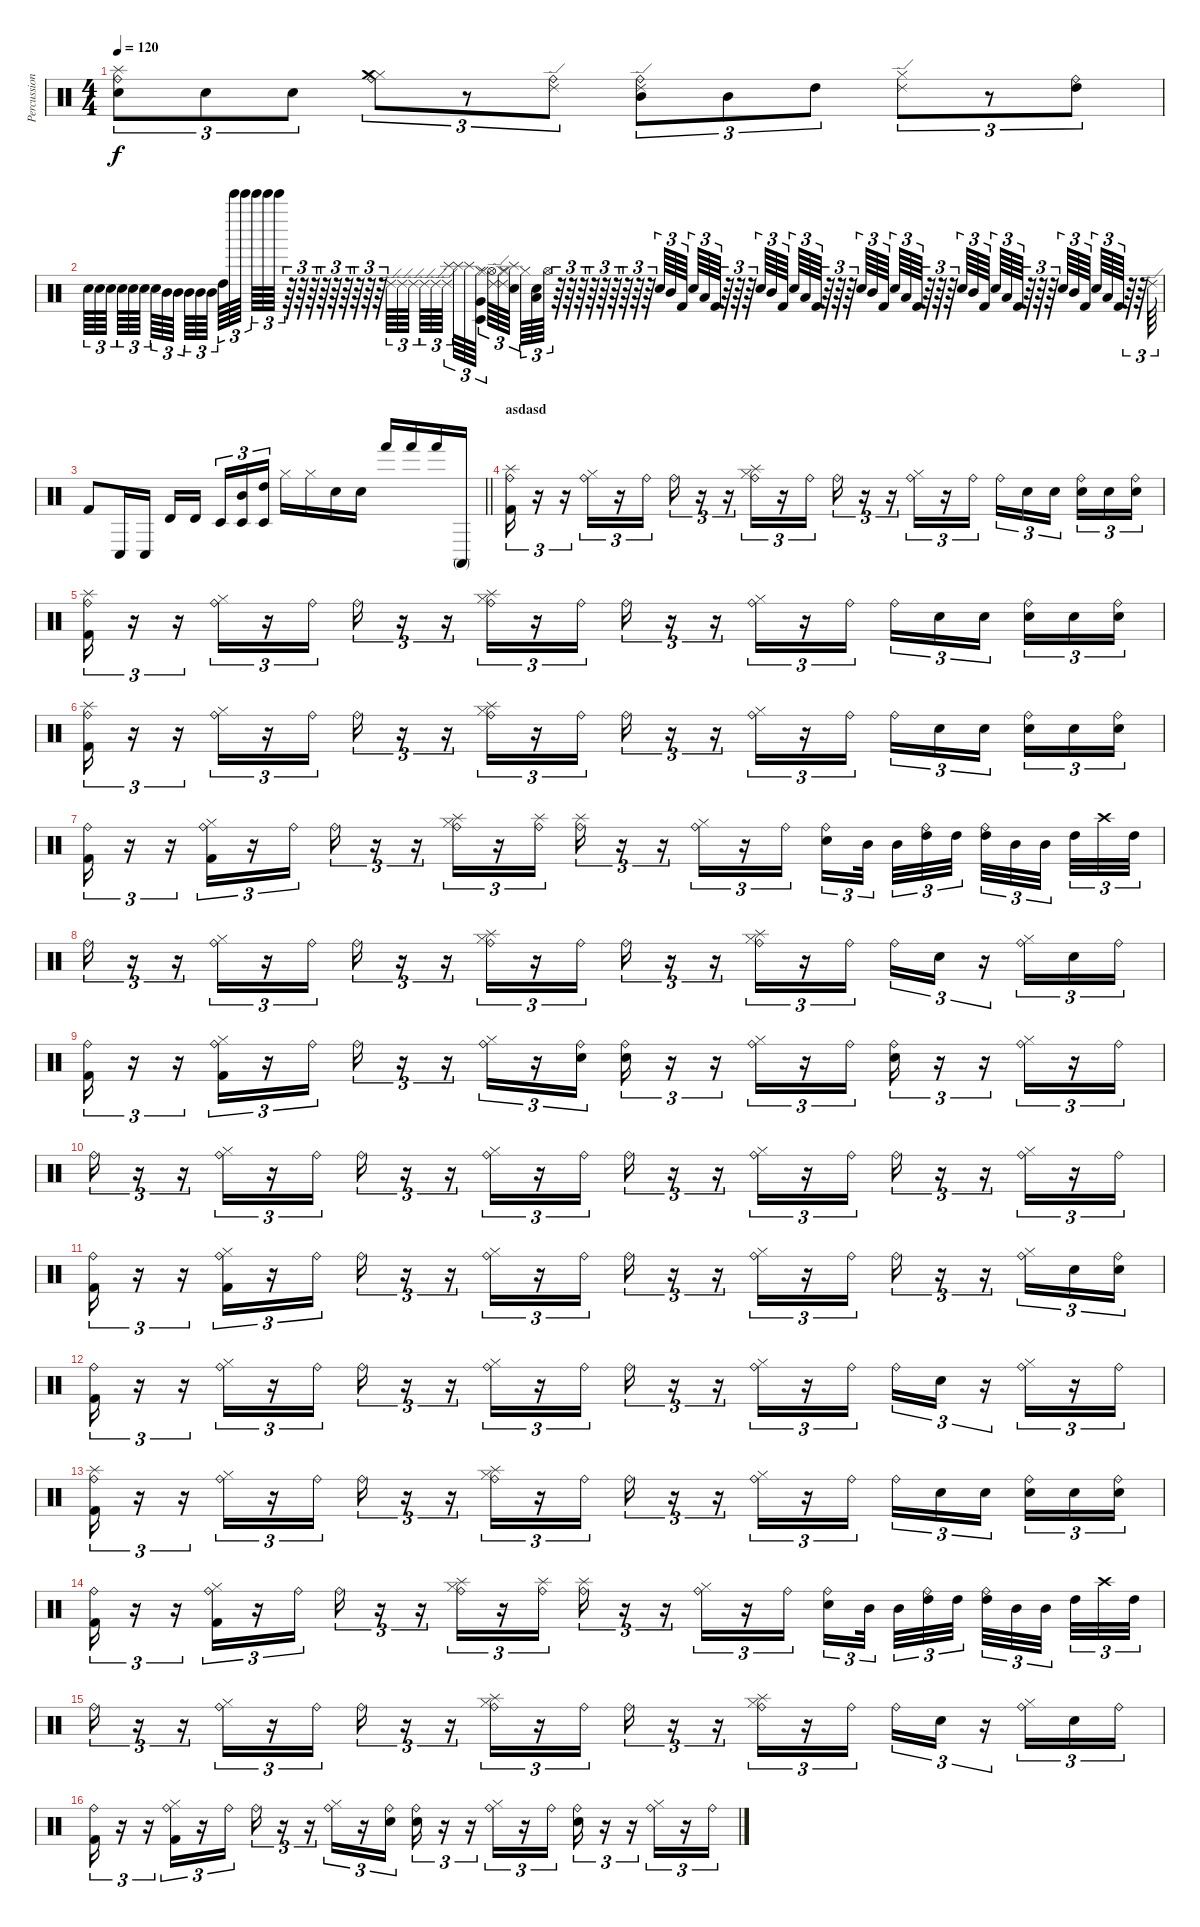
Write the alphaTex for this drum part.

\track ("Percussion" "Percussion") {instrument percussion}
\staff {score}
\articulation defaults
\ts (4 4)
\tempo 120
\clef neutral
\ks c
("Snare (hit) 2" "Ride (bell)" "Splash (hit)").8{tu (3 2) dy f} "Snare (hit) 2".8{tu (3 2)} "Snare (hit) 2".8{tu (3 2)} ("Hi-Hat (closed)" "Ride (bell)" "Crash medium (hit)").8{tu (3 2)} r.8{tu (3 2)} ("Ride (bell)" "Ride (edge) 2").8{tu (3 2)} ("Mid Tom (hit)" "Ride (bell)" "Ride (edge) 2").8{tu (3 2)} "Mid Tom (hit)".8{tu (3 2)} "High Tom (hit)".8{tu (3 2)} ("Hi-Hat (closed)" "Ride (edge) 2").8{tu (3 2)} r.8{tu (3 2)} ("High Tom (hit)" "Ride (bell)").8{tu (3 2)} |
"Snare (hit) 2".64{tu (3 2)} "Snare (hit) 2".64{tu (3 2)} "Snare (hit) 2".64{tu (3 2) beam splitsecondary} "Snare (hit) 2".64{tu (3 2)} "Snare (hit) 2".64{tu (3 2)} "Snare (hit) 2".64{tu (3 2) beam splitsecondary} "Snare (hit) 2".64{tu (3 2)} "Mid Tom (hit)".64{tu (3 2)} "Mid Tom (hit)".64{tu (3 2) beam splitsecondary} "Mid Tom (hit)".64{tu (3 2)} "Mid Tom (hit)".64{tu (3 2)} "Mid Tom (hit)".64{tu (3 2) beam splitsecondary} "High Tom (hit)".64{tu (3 2)} "Bell Tree (hit)".64{tu (3 2)} "Bell Tree (hit)".64{tu (3 2) beam splitsecondary} "Bell Tree (hit)".64{tu (3 2)} "Bell Tree (hit)".64{tu (3 2)} "Bell Tree (hit)".64{tu (3 2)} r.64{tu (3 2)} r.64{tu (3 2)} r.64{tu (3 2)} r.64{tu (3 2)} r.64{tu (3 2)} r.64{tu (3 2)} r.64{tu (3 2)} r.64{tu (3 2)} r.64{tu (3 2)} "Ride (edge) 2".64{tu (3 2)} "Ride (edge) 2".64{tu (3 2)} "Ride (edge) 2".64{tu (3 2) beam splitsecondary} "Ride (edge) 2".64{tu (3 2)} "Ride (edge) 2".64{tu (3 2)} "Ride (edge) 2".64{tu (3 2) beam splitsecondary} ("Splash (hit)" "Splash (hit)").64{tu (3 2)} "Splash (hit)".64{tu (3 2)} ("Very Low Tom (hit)" "Hi-Hat (closed)" "Timbale low (hit)").64{tu (3 2) beam splitsecondary} ("Hi-Hat (open)" "Hi-Hat (closed)").64{tu (3 2)} ("Ride (edge) 2" "Ride (edge) 2" "Hi-Hat (closed)").64{tu (3 2)} ("Splash (hit)" "Snare (hit)" "Hi-Hat (closed)").64{tu (3 2) beam splitsecondary} "Hi-Hat (closed)".64{tu (3 2)} ("Snare (hit)" "Low Tom (hit)").64{tu (3 2)} "Hi-Hat (open)".64{tu (3 2)} r.64{tu (3 2)} r.64{tu (3 2)} r.64{tu (3 2)} r.64{tu (3 2)} r.64{tu (3 2)} r.64{tu (3 2)} r.64{tu (3 2)} r.64{tu (3 2)} r.64{tu (3 2)} "Snare (hit) 2".64{tu (3 2)} "Mid Tom (hit)".64{tu (3 2)} "Kick (hit) 2".64{tu (3 2) beam splitsecondary} "Snare (hit) 2".64{tu (3 2)} "Low Floor Tom (hit)".64{tu (3 2)} "Kick (hit) 2".64{tu (3 2)} r.64{tu (3 2)} r.64{tu (3 2)} r.64{tu (3 2)} "Snare (hit) 2".64{tu (3 2)} "Mid Tom (hit)".64{tu (3 2)} "Kick (hit) 2".64{tu (3 2) beam splitsecondary} "Snare (hit) 2".64{tu (3 2)} "Low Floor Tom (hit)".64{tu (3 2)} "Kick (hit) 2".64{tu (3 2)} r.64{tu (3 2)} r.64{tu (3 2)} r.64{tu (3 2)} "Snare (hit) 2".64{tu (3 2)} "Mid Tom (hit)".64{tu (3 2)} "Kick (hit) 2".64{tu (3 2)} "Snare (hit) 2".64{tu (3 2)} "Low Floor Tom (hit)".64{tu (3 2)} "Kick (hit) 2".64{tu (3 2)} r.64{tu (3 2)} r.64{tu (3 2)} r.64{tu (3 2)} "Snare (hit) 2".64{tu (3 2)} "Mid Tom (hit)".64{tu (3 2)} "Kick (hit) 2".64{tu (3 2) beam splitsecondary} "Snare (hit) 2".64{tu (3 2)} "Low Floor Tom (hit)".64{tu (3 2)} "Kick (hit) 2".64{tu (3 2)} r.64{tu (3 2)} r.64{tu (3 2)} r.64{tu (3 2)} "Snare (hit) 2".64{tu (3 2)} "Mid Tom (hit)".64{tu (3 2)} "Kick (hit) 2".64{tu (3 2) beam splitsecondary} "Snare (hit) 2".64{tu (3 2)} "Low Floor Tom (hit)".64{tu (3 2)} "Kick (hit) 2".64{tu (3 2)} r.64{tu (3 2)} r.64{tu (3 2)} "Ride (edge) 2".64{tu (3 2)} |
\barLineRight lightlight "Kick (hit) 2".8 "Conga low (hit)".16 "Conga low (hit)".16 "Timbale high (hit)".16 "Timbale high (hit)".16{beam splitsecondary} "Timbale low (hit)".16{tu (3 2)}
("Mid Tom (hit)" "Timbale low (hit)").16{tu (3 2)} ("High Tom (hit)" "Timbale low (hit)").16{tu (3 2)} "Hi-Hat (closed)".16 "Hi-Hat (closed)".16 "Snare (hit) 2".16 "Snare (hit) 2".16 "Hand (hit)".16 "Hand (hit)".16 "Hand (hit)".16 "Conga high (mute)".16 |
\section ("" "asdasd")
("Kick (hit) 2" "Ride (bell)" "Splash (hit)").16{tu (3 2)} r.16{tu (3 2)} r.16{tu (3 2)} ("Hi-Hat (closed)" "Ride (bell)").16{tu (3 2)} r.16{tu (3 2)} "Ride (bell)".16{tu (3 2)} "Ride (bell)".16{tu (3 2)} r.16{tu (3 2)} r.16{tu (3 2)} ("Hi-Hat (closed)" "Ride (bell)" "Splash (hit)").16{tu (3 2)} r.16{tu (3 2)} "Ride (bell)".16{tu (3 2)} "Ride (bell)".16{tu (3 2)} r.16{tu (3 2)} r.16{tu (3 2)} ("Hi-Hat (closed)" "Ride (bell)").16{tu (3 2)} r.16{tu (3 2)} "Ride (bell)".16{tu (3 2)} "Ride (bell)".16{tu (3 2)} "Snare (hit) 2".16{tu (3 2)} "Snare (hit) 2".16{tu (3 2) beam splitsecondary} ("Snare (hit) 2" "Ride (bell)").16{tu (3 2)} "Snare (hit) 2".16{tu (3 2)} ("Snare (hit) 2" "Ride (bell)").16{tu (3 2)} |
("Kick (hit) 2" "Ride (bell)" "Splash (hit)").16{tu (3 2)} r.16{tu (3 2)} r.16{tu (3 2)} ("Hi-Hat (closed)" "Ride (bell)").16{tu (3 2)} r.16{tu (3 2)} "Ride (bell)".16{tu (3 2)} "Ride (bell)".16{tu (3 2)} r.16{tu (3 2)} r.16{tu (3 2)} ("Hi-Hat (closed)" "Ride (bell)" "Splash (hit)").16{tu (3 2)} r.16{tu (3 2)} "Ride (bell)".16{tu (3 2)} "Ride (bell)".16{tu (3 2)} r.16{tu (3 2)} r.16{tu (3 2)} ("Hi-Hat (closed)" "Ride (bell)").16{tu (3 2)} r.16{tu (3 2)} "Ride (bell)".16{tu (3 2)} "Ride (bell)".16{tu (3 2)} "Snare (hit) 2".16{tu (3 2)} "Snare (hit) 2".16{tu (3 2) beam splitsecondary} ("Snare (hit) 2" "Ride (bell)").16{tu (3 2)} "Snare (hit) 2".16{tu (3 2)} ("Snare (hit) 2" "Ride (bell)").16{tu (3 2)} |
("Kick (hit) 2" "Ride (bell)" "Splash (hit)").16{tu (3 2)} r.16{tu (3 2)} r.16{tu (3 2)} ("Hi-Hat (closed)" "Ride (bell)").16{tu (3 2)} r.16{tu (3 2)} "Ride (bell)".16{tu (3 2)} "Ride (bell)".16{tu (3 2)} r.16{tu (3 2)} r.16{tu (3 2)} ("Hi-Hat (closed)" "Ride (bell)" "Splash (hit)").16{tu (3 2)} r.16{tu (3 2)} "Ride (bell)".16{tu (3 2)} "Ride (bell)".16{tu (3 2)} r.16{tu (3 2)} r.16{tu (3 2)} ("Hi-Hat (closed)" "Ride (bell)").16{tu (3 2)} r.16{tu (3 2)} "Ride (bell)".16{tu (3 2)} "Ride (bell)".16{tu (3 2)} "Snare (hit) 2".16{tu (3 2)} "Snare (hit) 2".16{tu (3 2) beam splitsecondary} ("Snare (hit) 2" "Ride (bell)").16{tu (3 2)} "Snare (hit) 2".16{tu (3 2)} ("Snare (hit) 2" "Ride (bell)").16{tu (3 2)} |
("Kick (hit) 2" "Ride (bell)").16{tu (3 2)} r.16{tu (3 2)} r.16{tu (3 2)} ("Hi-Hat (closed)" "Ride (bell)" "Kick (hit) 2").16{tu (3 2)} r.16{tu (3 2)} "Ride (bell)".16{tu (3 2)} "Ride (bell)".16{tu (3 2)} r.16{tu (3 2)} r.16{tu (3 2)} ("Hi-Hat (closed)" "Ride (bell)" "Splash (hit)").16{tu (3 2)} r.16{tu (3 2)} ("Ride (bell)" "Splash (hit)").16{tu (3 2)} ("Ride (bell)" "Splash (hit)").16{tu (3 2)} r.16{tu (3 2)} r.16{tu (3 2)} ("Hi-Hat (closed)" "Ride (bell)").16{tu (3 2)} r.16{tu (3 2)} "Ride (bell)".16{tu (3 2)} ("Snare (hit) 2" "Ride (bell)").16{tu (3 2)} "Mid Tom (hit)".32{tu (3 2) beam splitsecondary} "Mid Tom (hit)".32{tu (3 2)} ("High Tom (hit)" "Ride (bell)").32{tu (3 2)} "High Tom (hit)".32{tu (3 2) beam splitsecondary} ("High Tom (hit)" "Ride (bell)").32{tu (3 2)} "Mid Tom (hit)".32{tu (3 2)} "Mid Tom (hit)".32{tu (3 2) beam splitsecondary} "High Tom (hit)".32{tu (3 2)} "Crash high (hit)".32{tu (3 2)} "High Tom (hit)".32{tu (3 2)} |
"Ride (bell)".16{tu (3 2)} r.16{tu (3 2)} r.16{tu (3 2)} ("Hi-Hat (closed)" "Ride (bell)").16{tu (3 2)} r.16{tu (3 2)} "Ride (bell)".16{tu (3 2)} "Ride (bell)".16{tu (3 2)} r.16{tu (3 2)} r.16{tu (3 2)} ("Hi-Hat (closed)" "Ride (bell)" "Splash (hit)").16{tu (3 2)} r.16{tu (3 2)} "Ride (bell)".16{tu (3 2)} "Ride (bell)".16{tu (3 2)} r.16{tu (3 2)} r.16{tu (3 2)} ("Hi-Hat (closed)" "Ride (bell)" "Splash (hit)").16{tu (3 2)} r.16{tu (3 2)} "Ride (bell)".16{tu (3 2)} "Ride (bell)".16{tu (3 2)} "Snare (hit) 2".16{tu (3 2)} r.16{tu (3 2)} ("Hi-Hat (closed)" "Ride (bell)").16{tu (3 2)} "Snare (hit) 2".16{tu (3 2)} "Ride (bell)".16{tu (3 2)} |
("Kick (hit) 2" "Ride (bell)").16{tu (3 2)} r.16{tu (3 2)} r.16{tu (3 2)} ("Hi-Hat (closed)" "Ride (bell)" "Kick (hit) 2").16{tu (3 2)} r.16{tu (3 2)} "Ride (bell)".16{tu (3 2)} "Ride (bell)".16{tu (3 2)} r.16{tu (3 2)} r.16{tu (3 2)} ("Hi-Hat (closed)" "Ride (bell)").16{tu (3 2)} r.16{tu (3 2)} ("Snare (hit) 2" "Ride (bell)").16{tu (3 2)} ("Snare (hit) 2" "Ride (bell)").16{tu (3 2)} r.16{tu (3 2)} r.16{tu (3 2)} ("Hi-Hat (closed)" "Ride (bell)").16{tu (3 2)} r.16{tu (3 2)} "Ride (bell)".16{tu (3 2)} ("Snare (hit) 2" "Ride (bell)").16{tu (3 2)} r.16{tu (3 2)} r.16{tu (3 2)} ("Hi-Hat (closed)" "Ride (bell)").16{tu (3 2)} r.16{tu (3 2)} "Ride (bell)".16{tu (3 2)} |
"Ride (bell)".16{tu (3 2)} r.16{tu (3 2)} r.16{tu (3 2)} ("Hi-Hat (closed)" "Ride (bell)").16{tu (3 2)} r.16{tu (3 2)} "Ride (bell)".16{tu (3 2)} "Ride (bell)".16{tu (3 2)} r.16{tu (3 2)} r.16{tu (3 2)} ("Hi-Hat (closed)" "Ride (bell)").16{tu (3 2)} r.16{tu (3 2)} "Ride (bell)".16{tu (3 2)} "Ride (bell)".16{tu (3 2)} r.16{tu (3 2)} r.16{tu (3 2)} ("Hi-Hat (closed)" "Ride (bell)").16{tu (3 2)} r.16{tu (3 2)} "Ride (bell)".16{tu (3 2)} "Ride (bell)".16{tu (3 2)} r.16{tu (3 2)} r.16{tu (3 2)} ("Hi-Hat (closed)" "Ride (bell)").16{tu (3 2)} r.16{tu (3 2)} "Ride (bell)".16{tu (3 2)} |
("Kick (hit) 2" "Ride (bell)").16{tu (3 2)} r.16{tu (3 2)} r.16{tu (3 2)} ("Hi-Hat (closed)" "Ride (bell)" "Kick (hit) 2").16{tu (3 2)} r.16{tu (3 2)} "Ride (bell)".16{tu (3 2)} "Ride (bell)".16{tu (3 2)} r.16{tu (3 2)} r.16{tu (3 2)} ("Hi-Hat (closed)" "Ride (bell)").16{tu (3 2)} r.16{tu (3 2)} "Ride (bell)".16{tu (3 2)} "Ride (bell)".16{tu (3 2)} r.16{tu (3 2)} r.16{tu (3 2)} ("Hi-Hat (closed)" "Ride (bell)").16{tu (3 2)} r.16{tu (3 2)} "Ride (bell)".16{tu (3 2)} "Ride (bell)".16{tu (3 2)} r.16{tu (3 2)} r.16{tu (3 2)} ("Hi-Hat (closed)" "Ride (bell)").16{tu (3 2)} "Snare (hit) 2".16{tu (3 2)} ("Snare (hit) 2" "Ride (bell)").16{tu (3 2)} |
("Kick (hit) 2" "Ride (bell)").16{tu (3 2)} r.16{tu (3 2)} r.16{tu (3 2)} ("Hi-Hat (closed)" "Ride (bell)").16{tu (3 2)} r.16{tu (3 2)} "Ride (bell)".16{tu (3 2)} "Ride (bell)".16{tu (3 2)} r.16{tu (3 2)} r.16{tu (3 2)} ("Hi-Hat (closed)" "Ride (bell)").16{tu (3 2)} r.16{tu (3 2)} "Ride (bell)".16{tu (3 2)} "Ride (bell)".16{tu (3 2)} r.16{tu (3 2)} r.16{tu (3 2)} ("Hi-Hat (closed)" "Ride (bell)").16{tu (3 2)} r.16{tu (3 2)} "Ride (bell)".16{tu (3 2)} "Ride (bell)".16{tu (3 2)} "Snare (hit) 2".16{tu (3 2)} r.16{tu (3 2)} ("Hi-Hat (closed)" "Ride (bell)").16{tu (3 2)} r.16{tu (3 2)} "Ride (bell)".16{tu (3 2)} |
("Kick (hit) 2" "Ride (bell)" "Splash (hit)").16{tu (3 2)} r.16{tu (3 2)} r.16{tu (3 2)} ("Hi-Hat (closed)" "Ride (bell)").16{tu (3 2)} r.16{tu (3 2)} "Ride (bell)".16{tu (3 2)} "Ride (bell)".16{tu (3 2)} r.16{tu (3 2)} r.16{tu (3 2)} ("Hi-Hat (closed)" "Ride (bell)" "Splash (hit)").16{tu (3 2)} r.16{tu (3 2)} "Ride (bell)".16{tu (3 2)} "Ride (bell)".16{tu (3 2)} r.16{tu (3 2)} r.16{tu (3 2)} ("Hi-Hat (closed)" "Ride (bell)").16{tu (3 2)} r.16{tu (3 2)} "Ride (bell)".16{tu (3 2)} "Ride (bell)".16{tu (3 2)} "Snare (hit) 2".16{tu (3 2)} "Snare (hit) 2".16{tu (3 2) beam splitsecondary} ("Snare (hit) 2" "Ride (bell)").16{tu (3 2)} "Snare (hit) 2".16{tu (3 2)} ("Snare (hit) 2" "Ride (bell)").16{tu (3 2)} |
("Kick (hit) 2" "Ride (bell)").16{tu (3 2)} r.16{tu (3 2)} r.16{tu (3 2)} ("Hi-Hat (closed)" "Ride (bell)" "Kick (hit) 2").16{tu (3 2)} r.16{tu (3 2)} "Ride (bell)".16{tu (3 2)} "Ride (bell)".16{tu (3 2)} r.16{tu (3 2)} r.16{tu (3 2)} ("Hi-Hat (closed)" "Ride (bell)" "Splash (hit)").16{tu (3 2)} r.16{tu (3 2)} ("Ride (bell)" "Splash (hit)").16{tu (3 2)} ("Ride (bell)" "Splash (hit)").16{tu (3 2)} r.16{tu (3 2)} r.16{tu (3 2)} ("Hi-Hat (closed)" "Ride (bell)").16{tu (3 2)} r.16{tu (3 2)} "Ride (bell)".16{tu (3 2)} ("Snare (hit) 2" "Ride (bell)").16{tu (3 2)} "Mid Tom (hit)".32{tu (3 2) beam splitsecondary} "Mid Tom (hit)".32{tu (3 2)} ("High Tom (hit)" "Ride (bell)").32{tu (3 2)} "High Tom (hit)".32{tu (3 2) beam splitsecondary} ("High Tom (hit)" "Ride (bell)").32{tu (3 2)} "Mid Tom (hit)".32{tu (3 2)} "Mid Tom (hit)".32{tu (3 2) beam splitsecondary} "High Tom (hit)".32{tu (3 2)} "Crash high (hit)".32{tu (3 2)} "High Tom (hit)".32{tu (3 2)} |
"Ride (bell)".16{tu (3 2)} r.16{tu (3 2)} r.16{tu (3 2)} ("Hi-Hat (closed)" "Ride (bell)").16{tu (3 2)} r.16{tu (3 2)} "Ride (bell)".16{tu (3 2)} "Ride (bell)".16{tu (3 2)} r.16{tu (3 2)} r.16{tu (3 2)} ("Hi-Hat (closed)" "Ride (bell)" "Splash (hit)").16{tu (3 2)} r.16{tu (3 2)} "Ride (bell)".16{tu (3 2)} "Ride (bell)".16{tu (3 2)} r.16{tu (3 2)} r.16{tu (3 2)} ("Hi-Hat (closed)" "Ride (bell)" "Splash (hit)").16{tu (3 2)} r.16{tu (3 2)} "Ride (bell)".16{tu (3 2)} "Ride (bell)".16{tu (3 2)} "Snare (hit) 2".16{tu (3 2)} r.16{tu (3 2)} ("Hi-Hat (closed)" "Ride (bell)").16{tu (3 2)} "Snare (hit) 2".16{tu (3 2)} "Ride (bell)".16{tu (3 2)} |
("Kick (hit) 2" "Ride (bell)").16{tu (3 2)} r.16{tu (3 2)} r.16{tu (3 2)} ("Hi-Hat (closed)" "Ride (bell)" "Kick (hit) 2").16{tu (3 2)} r.16{tu (3 2)} "Ride (bell)".16{tu (3 2)} "Ride (bell)".16{tu (3 2)} r.16{tu (3 2)} r.16{tu (3 2)} ("Hi-Hat (closed)" "Ride (bell)").16{tu (3 2)} r.16{tu (3 2)} ("Snare (hit) 2" "Ride (bell)").16{tu (3 2)} ("Snare (hit) 2" "Ride (bell)").16{tu (3 2)} r.16{tu (3 2)} r.16{tu (3 2)} ("Hi-Hat (closed)" "Ride (bell)").16{tu (3 2)} r.16{tu (3 2)} "Ride (bell)".16{tu (3 2)} ("Snare (hit) 2" "Ride (bell)").16{tu (3 2)} r.16{tu (3 2)} r.16{tu (3 2)} ("Hi-Hat (closed)" "Ride (bell)").16{tu (3 2)} r.16{tu (3 2)} "Ride (bell)".16{tu (3 2)}
